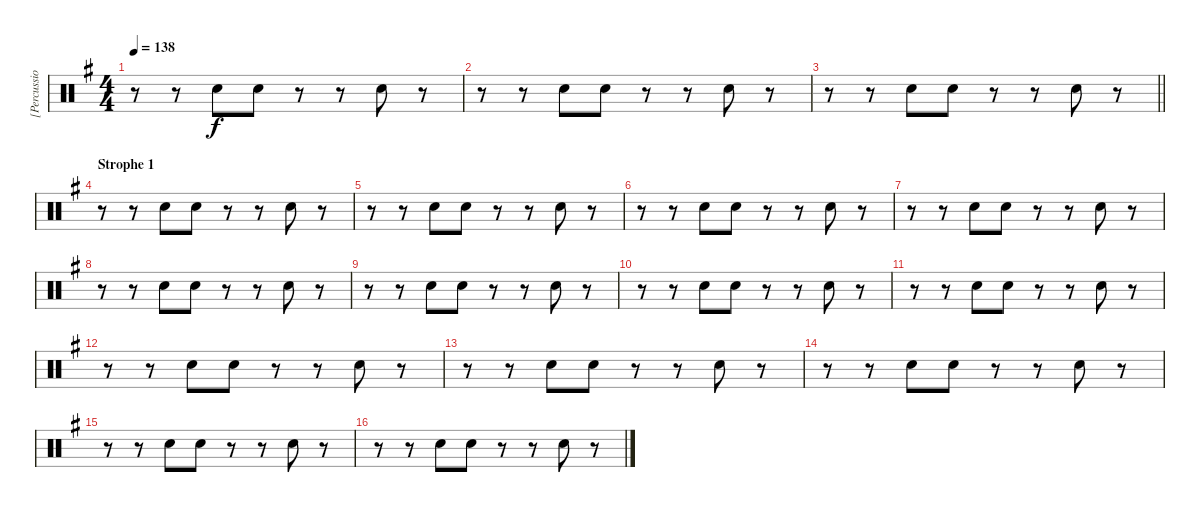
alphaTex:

\track ("[Percussion]" "[Percussio") {instrument percussion}
\staff {score}
\articulation defaults
\ts (4 4)
\tempo 138
\clef neutral
\ks eminor
r.8{dy f} r.8 "Hand Clap (hit)".8 "Hand Clap (hit)".8 r.8 r.8 "Hand Clap (hit)".8 r.8 |
r.8 r.8 "Hand Clap (hit)".8 "Hand Clap (hit)".8 r.8 r.8 "Hand Clap (hit)".8 r.8 |
\barLineRight lightlight
r.8 r.8 "Hand Clap (hit)".8 "Hand Clap (hit)".8 r.8 r.8 "Hand Clap (hit)".8 r.8 |
\section ("" "Strophe 1")
r.8 r.8 "Hand Clap (hit)".8 "Hand Clap (hit)".8 r.8 r.8 "Hand Clap (hit)".8 r.8 |
r.8 r.8 "Hand Clap (hit)".8 "Hand Clap (hit)".8 r.8 r.8 "Hand Clap (hit)".8 r.8 |
r.8 r.8 "Hand Clap (hit)".8 "Hand Clap (hit)".8 r.8 r.8 "Hand Clap (hit)".8 r.8 |
r.8 r.8 "Hand Clap (hit)".8 "Hand Clap (hit)".8 r.8 r.8 "Hand Clap (hit)".8 r.8 |
r.8 r.8 "Hand Clap (hit)".8 "Hand Clap (hit)".8 r.8 r.8 "Hand Clap (hit)".8 r.8 |
r.8 r.8 "Hand Clap (hit)".8 "Hand Clap (hit)".8 r.8 r.8 "Hand Clap (hit)".8 r.8 |
r.8 r.8 "Hand Clap (hit)".8 "Hand Clap (hit)".8 r.8 r.8 "Hand Clap (hit)".8 r.8 |
r.8 r.8 "Hand Clap (hit)".8 "Hand Clap (hit)".8 r.8 r.8 "Hand Clap (hit)".8 r.8 |
r.8 r.8 "Hand Clap (hit)".8 "Hand Clap (hit)".8 r.8 r.8 "Hand Clap (hit)".8 r.8 |
r.8 r.8 "Hand Clap (hit)".8 "Hand Clap (hit)".8 r.8 r.8 "Hand Clap (hit)".8 r.8 |
r.8 r.8 "Hand Clap (hit)".8 "Hand Clap (hit)".8 r.8 r.8 "Hand Clap (hit)".8 r.8 |
r.8 r.8 "Hand Clap (hit)".8 "Hand Clap (hit)".8 r.8 r.8 "Hand Clap (hit)".8 r.8 |
r.8 r.8 "Hand Clap (hit)".8 "Hand Clap (hit)".8 r.8 r.8 "Hand Clap (hit)".8 r.8
